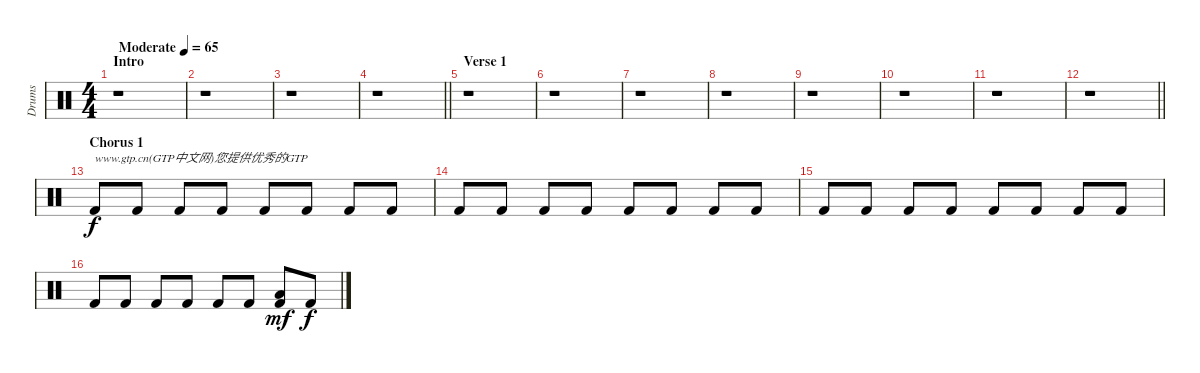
\track ("Drums" "Drums") {instrument percussion}
\staff {score}
\articulation defaults
\ts (4 4)
\section ("" "Intro")
\tempo (65 "Moderate")
\clef neutral
\ks c
r.1{dy f} |
r.1 |
r.1 |
\barLineRight lightlight
r.1 |
\section ("" "Verse 1")
r.1 |
r.1 |
r.1 |
r.1 |
r.1 |
r.1 |
r.1 |
\barLineRight lightlight
r.1 |
\section ("" "Chorus 1")
"Kick (hit) 2".8{txt "www.gtp.cn(GTP中文网)您提供优秀的GTP"} "Kick (hit) 2".8 "Kick (hit) 2".8 "Kick (hit) 2".8 "Kick (hit) 2".8 "Kick (hit) 2".8 "Kick (hit) 2".8 "Kick (hit) 2".8 |
"Kick (hit) 2".8 "Kick (hit) 2".8 "Kick (hit) 2".8 "Kick (hit) 2".8 "Kick (hit) 2".8 "Kick (hit) 2".8 "Kick (hit) 2".8 "Kick (hit) 2".8 |
"Kick (hit) 2".8 "Kick (hit) 2".8 "Kick (hit) 2".8 "Kick (hit) 2".8 "Kick (hit) 2".8 "Kick (hit) 2".8 "Kick (hit) 2".8 "Kick (hit) 2".8 |
"Kick (hit) 2".8 "Kick (hit) 2".8 "Kick (hit) 2".8 "Kick (hit) 2".8 "Kick (hit) 2".8 "Kick (hit) 2".8 ("Low Floor Tom (hit)" "Kick (hit) 2").8{dy mf} "Kick (hit) 2".8{dy f}
